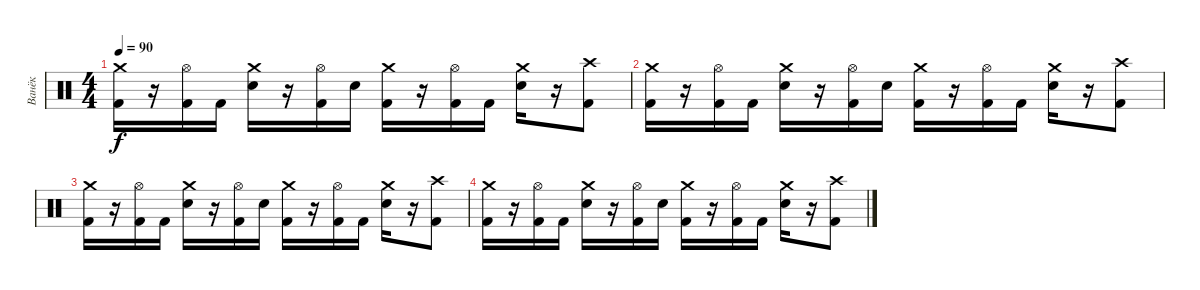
\track ("Ванёк" "Ванёк") {instrument percussion}
\staff {score}
\articulation defaults
\ts (4 4)
\tempo 90
\clef neutral
\ks c
("Crash medium (hit)" "Kick (hit) 2").16{dy f} r.16 ("Hi-Hat (open)" "Kick (hit) 2").16 "Kick (hit) 2".16 ("Crash medium (hit)" "Electric Snare (hit)").16 r.16 ("Hi-Hat (open)" "Kick (hit) 2").16 "Electric Snare (hit)".16 ("Crash medium (hit)" "Kick (hit) 2").16 r.16 ("Hi-Hat (open)" "Kick (hit) 2").16 "Kick (hit) 2".16 ("Crash medium (hit)" "Electric Snare (hit)").16 r.16 ("Crash high (hit)" "Kick (hit) 2").8 |
("Crash medium (hit)" "Kick (hit) 2").16 r.16 ("Hi-Hat (open)" "Kick (hit) 2").16 "Kick (hit) 2".16 ("Crash medium (hit)" "Electric Snare (hit)").16 r.16 ("Hi-Hat (open)" "Kick (hit) 2").16 "Electric Snare (hit)".16 ("Crash medium (hit)" "Kick (hit) 2").16 r.16 ("Hi-Hat (open)" "Kick (hit) 2").16 "Kick (hit) 2".16 ("Crash medium (hit)" "Electric Snare (hit)").16 r.16 ("Crash high (hit)" "Kick (hit) 2").8 |
("Crash medium (hit)" "Kick (hit) 2").16 r.16 ("Hi-Hat (open)" "Kick (hit) 2").16 "Kick (hit) 2".16 ("Crash medium (hit)" "Electric Snare (hit)").16 r.16 ("Hi-Hat (open)" "Kick (hit) 2").16 "Electric Snare (hit)".16 ("Crash medium (hit)" "Kick (hit) 2").16 r.16 ("Hi-Hat (open)" "Kick (hit) 2").16 "Kick (hit) 2".16 ("Crash medium (hit)" "Electric Snare (hit)").16 r.16 ("Crash high (hit)" "Kick (hit) 2").8 |
("Crash medium (hit)" "Kick (hit) 2").16 r.16 ("Hi-Hat (open)" "Kick (hit) 2").16 "Kick (hit) 2".16 ("Crash medium (hit)" "Electric Snare (hit)").16 r.16 ("Hi-Hat (open)" "Kick (hit) 2").16 "Electric Snare (hit)".16 ("Crash medium (hit)" "Kick (hit) 2").16 r.16 ("Hi-Hat (open)" "Kick (hit) 2").16 "Kick (hit) 2".16 ("Crash medium (hit)" "Electric Snare (hit)").16 r.16 ("Crash high (hit)" "Kick (hit) 2").8
